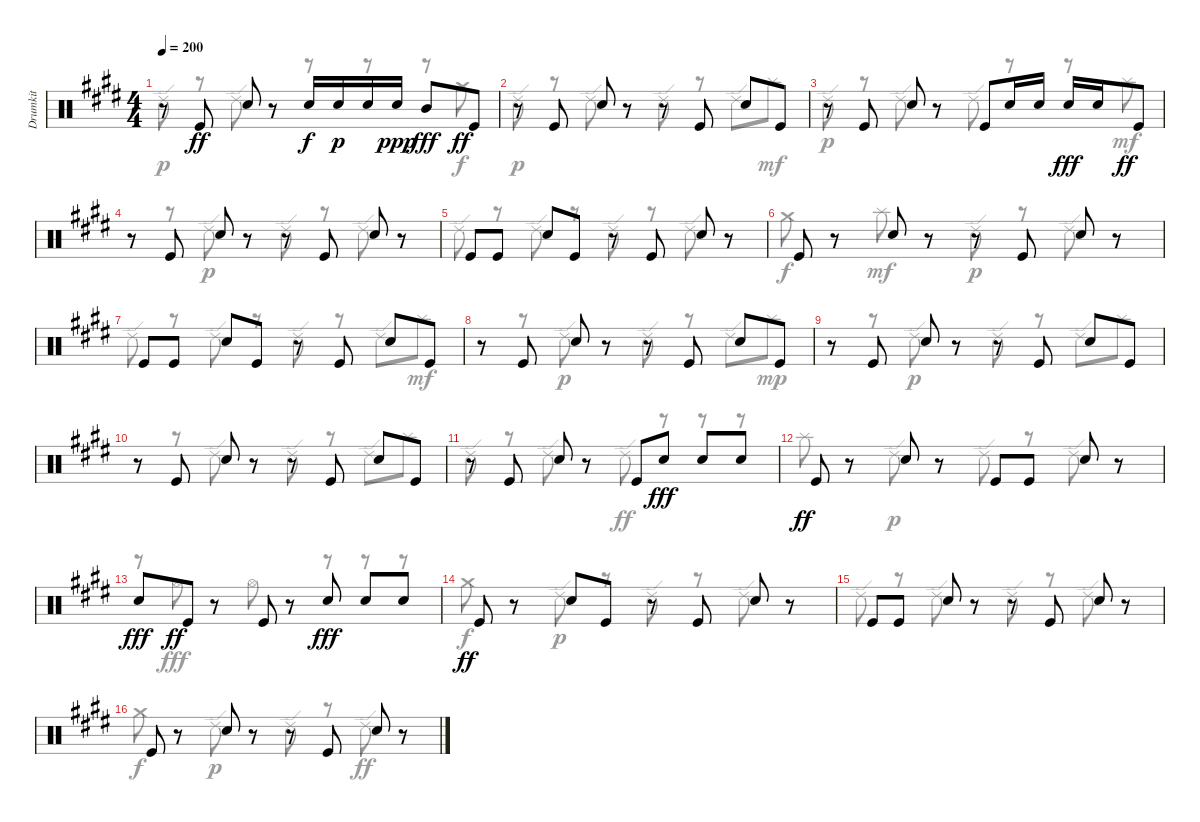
\track ("Drumkit" "Drumkit") {instrument percussion}
\staff {score}
\articulation defaults
\voice
\ts (4 4)
\tempo 200
\clef neutral
\ks c#minor
r.8{dy ff} "Kick (hit)".8 "Snare (hit) 2".8 r.8 "Snare (hit) 2".16{dy f} "Snare (hit) 2".16{dy p} "Snare (hit) 2".16 "Snare (hit) 2".16{dy ppp} "Mid Tom (hit)".8{dy fff} "Kick (hit)".8{dy ff} |
r.8 "Kick (hit)".8 "Snare (hit) 2".8 r.8 r.8 "Kick (hit)".8 "Snare (hit) 2".8 "Kick (hit)".8 |
r.8 "Kick (hit)".8 "Snare (hit) 2".8 r.8 "Kick (hit)".8 "Snare (hit) 2".16 "Snare (hit) 2".16 "Snare (hit) 2".16{dy fff} "Snare (hit) 2".16 "Kick (hit)".8{dy ff} |
r.8 "Kick (hit)".8 "Snare (hit) 2".8 r.8 r.8 "Kick (hit)".8 "Snare (hit) 2".8 r.8 |
"Kick (hit)".8 "Kick (hit)".8 "Snare (hit) 2".8 "Kick (hit)".8 r.8 "Kick (hit)".8 "Snare (hit) 2".8 r.8 |
"Kick (hit)".8 r.8 "Snare (hit) 2".8 r.8 r.8 "Kick (hit)".8 "Snare (hit) 2".8 r.8 |
"Kick (hit)".8 "Kick (hit)".8 "Snare (hit) 2".8 "Kick (hit)".8 r.8 "Kick (hit)".8 "Snare (hit) 2".8 "Kick (hit)".8 |
r.8 "Kick (hit)".8 "Snare (hit) 2".8 r.8 r.8 "Kick (hit)".8 "Snare (hit) 2".8 "Kick (hit)".8 |
r.8 "Kick (hit)".8 "Snare (hit) 2".8 r.8 r.8 "Kick (hit)".8 "Snare (hit) 2".8 "Kick (hit)".8 |
r.8 "Kick (hit)".8 "Snare (hit) 2".8 r.8 r.8 "Kick (hit)".8 "Snare (hit) 2".8 "Kick (hit)".8 |
r.8 "Kick (hit)".8 "Snare (hit) 2".8 r.8 "Kick (hit)".8 "Snare (hit) 2".8{dy fff} "Snare (hit) 2".8 "Snare (hit) 2".8 |
"Kick (hit)".8{dy ff} r.8 "Snare (hit) 2".8 r.8 "Kick (hit)".8 "Kick (hit)".8 "Snare (hit) 2".8 r.8 |
"Snare (hit) 2".8{dy fff} "Kick (hit)".8{dy ff} r.8 "Kick (hit)".8 r.8 "Snare (hit) 2".8{dy fff} "Snare (hit) 2".8 "Snare (hit) 2".8 |
"Kick (hit)".8{dy ff} r.8 "Snare (hit) 2".8 "Kick (hit)".8 r.8 "Kick (hit)".8 "Snare (hit) 2".8 r.8 |
"Kick (hit)".8 "Kick (hit)".8 "Snare (hit) 2".8 r.8 r.8 "Kick (hit)".8 "Snare (hit) 2".8 r.8 |
"Kick (hit)".8 r.8 "Snare (hit) 2".8 r.8 r.8 "Kick (hit)".8 "Snare (hit) 2".8 r.8
\voice
\clef neutral
\ottava regular
\simile none
\ks c#minor "Ride (edge) 2".8{dy p}
r.8 "Ride (edge) 2".8 r.8 r.8 r.8 r.8 "Crash medium (hit)".8{dy f} |
"Ride (edge) 2".8{dy p} r.8 "Ride (edge) 2".8 r.8 "Ride (edge) 2".8 r.8 "Ride (edge) 2".8 "Splash (hit)".8{dy mf} |
"Ride (edge) 2".8{dy p} r.8 "Ride (edge) 2".8 r.8 "Ride (edge) 2".8 r.8 r.8 "Splash (hit)".8{dy mf} |
r.8 r.8 "Ride (edge) 2".8{dy p} r.8 "Ride (edge) 2".8 r.8 "Ride (edge) 2".8 r.8 |
"Ride (edge) 2".8 r.8 "Ride (edge) 2".8 r.8 "Ride (edge) 2".8 r.8 "Ride (edge) 2".8 r.8 |
"Crash medium (hit)".8{dy f} r.8 "Splash (hit)".8{dy mf} r.8 "Ride (edge) 2".8{dy p} r.8 "Ride (edge) 2".8 r.8 |
"Ride (edge) 2".8 r.8 "Ride (edge) 2".8 r.8 "Ride (edge) 2".8 r.8 "Ride (edge) 2".8 "Splash (hit)".8{dy mf} |
r.8 r.8 "Ride (edge) 2".8{dy p} r.8 "Ride (edge) 2".8 r.8 "Ride (edge) 2".8 "Splash (hit)".8{dy mp} |
r.8 r.8 "Ride (edge) 2".8{dy p} r.8 "Ride (edge) 2".8 r.8 "Ride (edge) 2".8 "Splash (hit)".8 |
r.8 r.8 "Ride (edge) 2".8 r.8 "Ride (edge) 2".8 r.8 "Ride (edge) 2".8 "Splash (hit)".8 |
"Ride (edge) 2".8 r.8 "Ride (edge) 2".8 r.8 "Ride (edge) 2".8{dy ff} r.8 r.8 r.8 |
"Splash (hit)".8 r.8 "Ride (edge) 2".8{dy p} r.8 "Ride (edge) 2".8 r.8 "Ride (edge) 2".8 r.8 |
r.8 "Hi-Hat (open)".8{dy fff} r.8 "Hi-Hat (open)".8 r.8 r.8 r.8 r.8 |
"Crash medium (hit)".8{dy f} r.8 "Ride (edge) 2".8{dy p} r.8 "Ride (edge) 2".8 r.8 "Ride (edge) 2".8 r.8 |
"Ride (edge) 2".8 r.8 "Ride (edge) 2".8 r.8 "Ride (edge) 2".8 r.8 "Ride (edge) 2".8 r.8 |
"Crash medium (hit)".8{dy f} r.8 "Ride (edge) 2".8{dy p} r.8 "Ride (edge) 2".8 r.8 "Ride (edge) 2".8{dy ff} r.8
